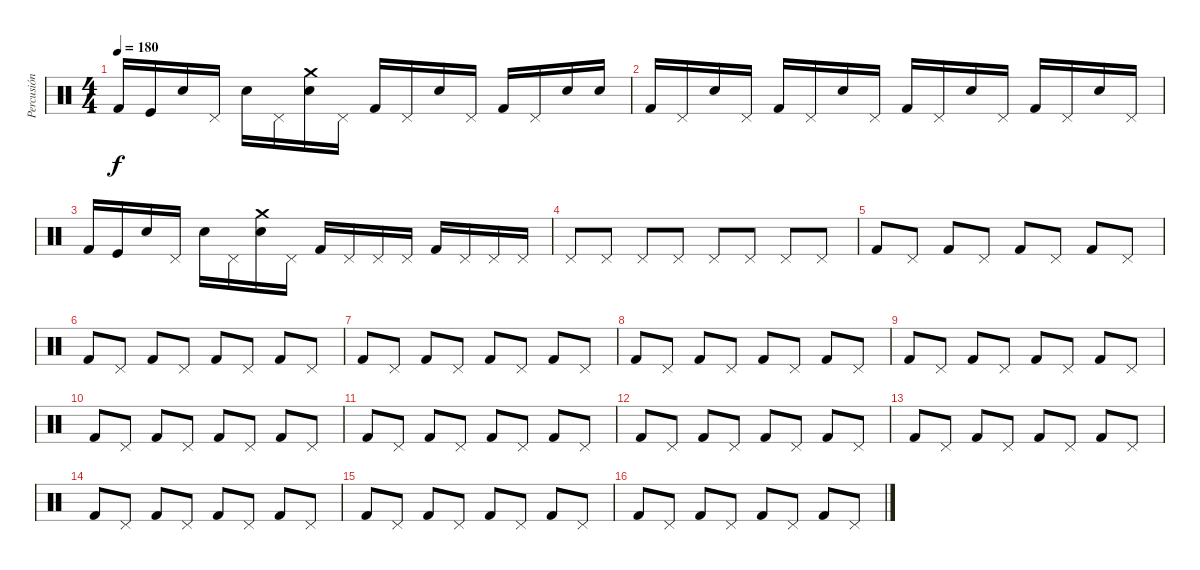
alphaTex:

\track ("Percusión" "Percusión") {instrument percussion}
\staff {score}
\articulation defaults
\ts (4 4)
\tempo 180
\clef neutral
\ks c "Kick (hit) 2".16{dy f} "Kick (hit)".16 "Snare (hit) 2".16 "Pedal Hi-Hat (hit)".16 "Snare (hit) 2".16 "Pedal Hi-Hat (hit)".16
("Snare (hit) 2" "Crash medium (hit)").16 "Pedal Hi-Hat (hit)".16 "Kick (hit) 2".16 "Pedal Hi-Hat (hit)".16 "Snare (hit) 2".16 "Pedal Hi-Hat (hit)".16 "Kick (hit) 2".16 "Pedal Hi-Hat (hit)".16 "Snare (hit) 2".16 "Snare (hit) 2".16 |
"Kick (hit) 2".16 "Pedal Hi-Hat (hit)".16 "Snare (hit) 2".16 "Pedal Hi-Hat (hit)".16 "Kick (hit) 2".16 "Pedal Hi-Hat (hit)".16 "Snare (hit) 2".16 "Pedal Hi-Hat (hit)".16 "Kick (hit) 2".16 "Pedal Hi-Hat (hit)".16 "Snare (hit) 2".16 "Pedal Hi-Hat (hit)".16 "Kick (hit) 2".16 "Pedal Hi-Hat (hit)".16 "Snare (hit) 2".16 "Pedal Hi-Hat (hit)".16 |
"Kick (hit) 2".16 "Kick (hit)".16 "Snare (hit) 2".16 "Pedal Hi-Hat (hit)".16 "Snare (hit) 2".16 "Pedal Hi-Hat (hit)".16 ("Snare (hit) 2" "Crash medium (hit)").16 "Pedal Hi-Hat (hit)".16 "Kick (hit) 2".16 "Pedal Hi-Hat (hit)".16 "Pedal Hi-Hat (hit)".16 "Pedal Hi-Hat (hit)".16 "Kick (hit) 2".16 "Pedal Hi-Hat (hit)".16 "Pedal Hi-Hat (hit)".16 "Pedal Hi-Hat (hit)".16 |
"Pedal Hi-Hat (hit)".8 "Pedal Hi-Hat (hit)".8 "Pedal Hi-Hat (hit)".8 "Pedal Hi-Hat (hit)".8 "Pedal Hi-Hat (hit)".8 "Pedal Hi-Hat (hit)".8 "Pedal Hi-Hat (hit)".8 "Pedal Hi-Hat (hit)".8 |
"Kick (hit) 2".8 "Pedal Hi-Hat (hit)".8 "Kick (hit) 2".8 "Pedal Hi-Hat (hit)".8 "Kick (hit) 2".8 "Pedal Hi-Hat (hit)".8 "Kick (hit) 2".8 "Pedal Hi-Hat (hit)".8 |
"Kick (hit) 2".8 "Pedal Hi-Hat (hit)".8 "Kick (hit) 2".8 "Pedal Hi-Hat (hit)".8 "Kick (hit) 2".8 "Pedal Hi-Hat (hit)".8 "Kick (hit) 2".8 "Pedal Hi-Hat (hit)".8 |
"Kick (hit) 2".8 "Pedal Hi-Hat (hit)".8 "Kick (hit) 2".8 "Pedal Hi-Hat (hit)".8 "Kick (hit) 2".8 "Pedal Hi-Hat (hit)".8 "Kick (hit) 2".8 "Pedal Hi-Hat (hit)".8 |
"Kick (hit) 2".8 "Pedal Hi-Hat (hit)".8 "Kick (hit) 2".8 "Pedal Hi-Hat (hit)".8 "Kick (hit) 2".8 "Pedal Hi-Hat (hit)".8 "Kick (hit) 2".8 "Pedal Hi-Hat (hit)".8 |
"Kick (hit) 2".8 "Pedal Hi-Hat (hit)".8 "Kick (hit) 2".8 "Pedal Hi-Hat (hit)".8 "Kick (hit) 2".8 "Pedal Hi-Hat (hit)".8 "Kick (hit) 2".8 "Pedal Hi-Hat (hit)".8 |
"Kick (hit) 2".8 "Pedal Hi-Hat (hit)".8 "Kick (hit) 2".8 "Pedal Hi-Hat (hit)".8 "Kick (hit) 2".8 "Pedal Hi-Hat (hit)".8 "Kick (hit) 2".8 "Pedal Hi-Hat (hit)".8 |
"Kick (hit) 2".8 "Pedal Hi-Hat (hit)".8 "Kick (hit) 2".8 "Pedal Hi-Hat (hit)".8 "Kick (hit) 2".8 "Pedal Hi-Hat (hit)".8 "Kick (hit) 2".8 "Pedal Hi-Hat (hit)".8 |
"Kick (hit) 2".8 "Pedal Hi-Hat (hit)".8 "Kick (hit) 2".8 "Pedal Hi-Hat (hit)".8 "Kick (hit) 2".8 "Pedal Hi-Hat (hit)".8 "Kick (hit) 2".8 "Pedal Hi-Hat (hit)".8 |
"Kick (hit) 2".8 "Pedal Hi-Hat (hit)".8 "Kick (hit) 2".8 "Pedal Hi-Hat (hit)".8 "Kick (hit) 2".8 "Pedal Hi-Hat (hit)".8 "Kick (hit) 2".8 "Pedal Hi-Hat (hit)".8 |
"Kick (hit) 2".8 "Pedal Hi-Hat (hit)".8 "Kick (hit) 2".8 "Pedal Hi-Hat (hit)".8 "Kick (hit) 2".8 "Pedal Hi-Hat (hit)".8 "Kick (hit) 2".8 "Pedal Hi-Hat (hit)".8 |
"Kick (hit) 2".8 "Pedal Hi-Hat (hit)".8 "Kick (hit) 2".8 "Pedal Hi-Hat (hit)".8 "Kick (hit) 2".8 "Pedal Hi-Hat (hit)".8 "Kick (hit) 2".8 "Pedal Hi-Hat (hit)".8 |
"Kick (hit) 2".8 "Pedal Hi-Hat (hit)".8 "Kick (hit) 2".8 "Pedal Hi-Hat (hit)".8 "Kick (hit) 2".8 "Pedal Hi-Hat (hit)".8 "Kick (hit) 2".8 "Pedal Hi-Hat (hit)".8
